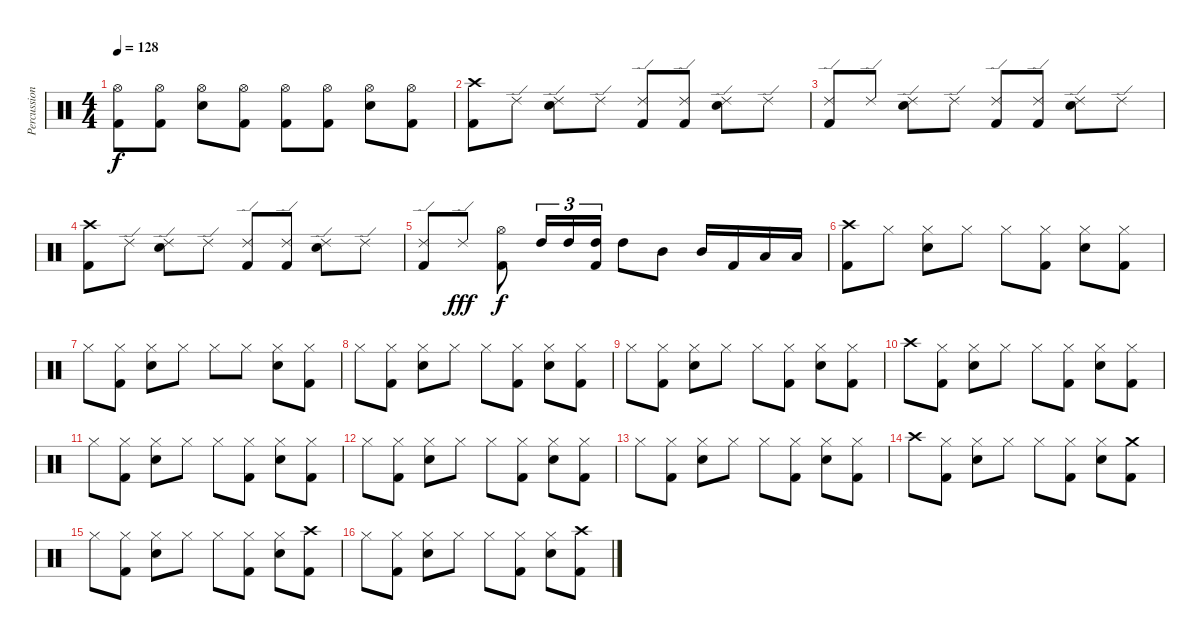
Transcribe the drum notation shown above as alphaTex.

\track ("Percussion" "Percussion") {instrument percussion bank 10}
\staff {score}
\articulation defaults
\ts (4 4)
\tempo 128
\clef neutral
\ks c
("Hi-Hat (open)" "Kick (hit) 2").8{dy f} ("Hi-Hat (open)" "Kick (hit) 2").8 ("Hi-Hat (open)" "Snare (hit) 2").8 ("Hi-Hat (open)" "Kick (hit) 2").8 ("Hi-Hat (open)" "Kick (hit) 2").8 ("Hi-Hat (open)" "Kick (hit) 2").8 ("Hi-Hat (open)" "Snare (hit) 2").8 ("Hi-Hat (open)" "Kick (hit) 2").8 |
("Crash high (hit)" "Kick (hit) 2").8 "Ride (edge) 2".8 ("Ride (edge) 2" "Snare (hit) 2").8 "Ride (edge) 2".8 ("Ride (edge) 2" "Kick (hit) 2").8 ("Ride (edge) 2" "Kick (hit) 2").8 ("Ride (edge) 2" "Snare (hit) 2").8 "Ride (edge) 2".8 |
("Ride (edge) 2" "Kick (hit) 2").8 "Ride (edge) 2".8 ("Ride (edge) 2" "Snare (hit) 2").8 "Ride (edge) 2".8 ("Ride (edge) 2" "Kick (hit) 2").8 ("Ride (edge) 2" "Kick (hit) 2").8 ("Ride (edge) 2" "Snare (hit) 2").8 "Ride (edge) 2".8 |
("Crash high (hit)" "Kick (hit) 2").8 "Ride (edge) 2".8 ("Ride (edge) 2" "Snare (hit) 2").8 "Ride (edge) 2".8 ("Ride (edge) 2" "Kick (hit) 2").8 ("Ride (edge) 2" "Kick (hit) 2").8 ("Ride (edge) 2" "Snare (hit) 2").8 "Ride (edge) 2".8 |
("Ride (edge) 2" "Kick (hit) 2").8 "Ride (edge) 2".8{dy fff} ("Hi-Hat (open)" "Kick (hit) 2").8{dy f} "High Tom (hit)".16{tu (3 2)} "High Tom (hit)".16{tu (3 2)} ("High Tom (hit)" "Kick (hit) 2").16{tu (3 2)} "High Tom (hit)".8 "Mid Tom (hit)".8 "Mid Tom (hit)".16 "Kick (hit) 2".16 "Low Tom (hit)".16 "Low Tom (hit)".16 |
("Crash high (hit)" "Kick (hit) 2").8 "Hi-Hat (closed)".8 ("Hi-Hat (closed)" "Snare (hit) 2").8 "Hi-Hat (closed)".8 "Hi-Hat (closed)".8 ("Hi-Hat (closed)" "Kick (hit) 2").8 ("Hi-Hat (closed)" "Snare (hit) 2").8 ("Hi-Hat (closed)" "Kick (hit) 2").8 |
"Hi-Hat (closed)".8 ("Hi-Hat (closed)" "Kick (hit) 2").8 ("Hi-Hat (closed)" "Snare (hit) 2").8 "Hi-Hat (closed)".8 "Hi-Hat (closed)".8 "Hi-Hat (closed)".8 ("Hi-Hat (closed)" "Snare (hit) 2").8 ("Hi-Hat (closed)" "Kick (hit) 2").8 |
"Hi-Hat (closed)".8 ("Hi-Hat (closed)" "Kick (hit) 2").8 ("Hi-Hat (closed)" "Snare (hit) 2").8 "Hi-Hat (closed)".8 "Hi-Hat (closed)".8 ("Hi-Hat (closed)" "Kick (hit) 2").8 ("Hi-Hat (closed)" "Snare (hit) 2").8 ("Hi-Hat (closed)" "Kick (hit) 2").8 |
"Hi-Hat (closed)".8 ("Hi-Hat (closed)" "Kick (hit) 2").8 ("Hi-Hat (closed)" "Snare (hit) 2").8 "Hi-Hat (closed)".8 "Hi-Hat (closed)".8 ("Hi-Hat (closed)" "Kick (hit) 2").8 ("Hi-Hat (closed)" "Snare (hit) 2").8 ("Hi-Hat (closed)" "Kick (hit) 2").8 |
"Crash high (hit)".8 ("Hi-Hat (closed)" "Kick (hit) 2").8 ("Hi-Hat (closed)" "Snare (hit) 2").8 "Hi-Hat (closed)".8 "Hi-Hat (closed)".8 ("Hi-Hat (closed)" "Kick (hit) 2").8 ("Hi-Hat (closed)" "Snare (hit) 2").8 ("Hi-Hat (closed)" "Kick (hit) 2").8 |
"Hi-Hat (closed)".8 ("Hi-Hat (closed)" "Kick (hit) 2").8 ("Hi-Hat (closed)" "Snare (hit) 2").8 "Hi-Hat (closed)".8 "Hi-Hat (closed)".8 ("Hi-Hat (closed)" "Kick (hit) 2").8 ("Hi-Hat (closed)" "Snare (hit) 2").8 ("Hi-Hat (closed)" "Kick (hit) 2").8 |
"Hi-Hat (closed)".8 ("Hi-Hat (closed)" "Kick (hit) 2").8 ("Hi-Hat (closed)" "Snare (hit) 2").8 "Hi-Hat (closed)".8 "Hi-Hat (closed)".8 ("Hi-Hat (closed)" "Kick (hit) 2").8 ("Hi-Hat (closed)" "Snare (hit) 2").8 ("Hi-Hat (closed)" "Kick (hit) 2").8 |
"Hi-Hat (closed)".8 ("Hi-Hat (closed)" "Kick (hit) 2").8 ("Hi-Hat (closed)" "Snare (hit) 2").8 "Hi-Hat (closed)".8 "Hi-Hat (closed)".8 ("Hi-Hat (closed)" "Kick (hit) 2").8 ("Hi-Hat (closed)" "Snare (hit) 2").8 ("Hi-Hat (closed)" "Kick (hit) 2").8 |
"Crash high (hit)".8 ("Hi-Hat (closed)" "Kick (hit) 2").8 ("Hi-Hat (closed)" "Snare (hit) 2").8 "Hi-Hat (closed)".8 "Hi-Hat (closed)".8 ("Hi-Hat (closed)" "Kick (hit) 2").8 ("Hi-Hat (closed)" "Snare (hit) 2").8 ("Crash medium (hit)" "Kick (hit) 2").8 |
"Hi-Hat (closed)".8 ("Hi-Hat (closed)" "Kick (hit) 2").8 ("Hi-Hat (closed)" "Snare (hit) 2").8 "Hi-Hat (closed)".8 "Hi-Hat (closed)".8 ("Hi-Hat (closed)" "Kick (hit) 2").8 ("Hi-Hat (closed)" "Snare (hit) 2").8 ("Crash high (hit)" "Kick (hit) 2").8 |
"Hi-Hat (closed)".8 ("Hi-Hat (closed)" "Kick (hit) 2").8 ("Hi-Hat (closed)" "Snare (hit) 2").8 "Hi-Hat (closed)".8 "Hi-Hat (closed)".8 ("Hi-Hat (closed)" "Kick (hit) 2").8 ("Hi-Hat (closed)" "Snare (hit) 2").8 ("Crash high (hit)" "Kick (hit) 2").8
